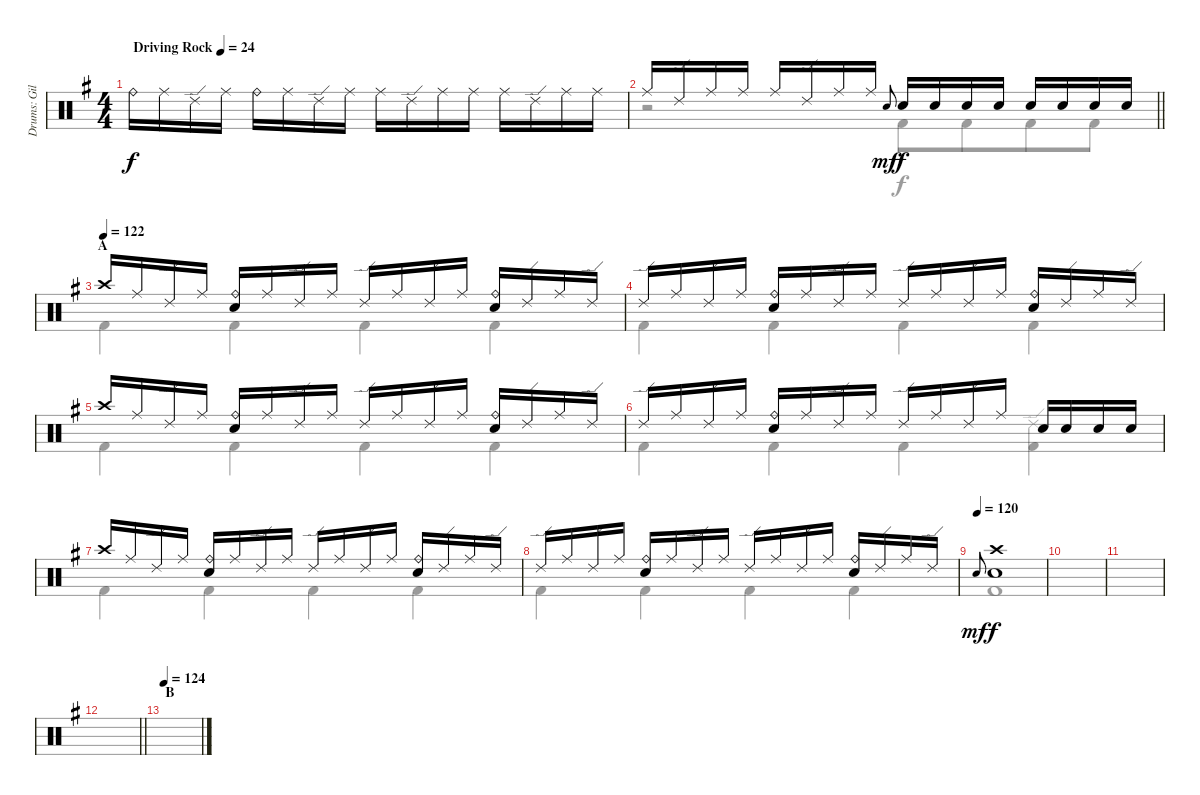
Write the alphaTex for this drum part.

\track ("Drums: Gil" "Drums: Gil") {instrument percussion}
\staff {score}
\articulation defaults
\voice
\ts (4 4)
\tempo (24 "Driving Rock")
\tempo 124
\tempo (24 "Driving Rock")
\clef neutral
\ks g "Ride (bell)".16{dy f volume 0} "Ride (middle)".16 "Ride (edge) 2".16 "Ride (middle)".16 "Ride (bell)".16{volume 16} "Ride (middle)".16 "Ride (edge) 2".16 "Ride (middle)".16 "Ride (middle)".16 "Ride (edge) 2".16 "Ride (middle)".16 "Ride (middle)".16 "Ride (middle)".16 "Ride (edge) 2".16 "Ride (middle)".16 "Ride (middle)".16
|
\barLineRight lightlight "Ride (middle)".16 "Ride (edge) 2".16 "Ride (middle)".16 "Ride (middle)".16 "Ride (middle)".16 "Ride (edge) 2".16 "Ride (middle)".16 "Ride (middle)".16 "Electric Snare (hit)".8{gr onbeat dy mf} "Snare (hit) 2".16{dy f} "Snare (hit) 2".16 "Snare (hit) 2".16 "Snare (hit) 2".16 "Snare (hit) 2".16 "Snare (hit) 2".16 "Snare (hit) 2".16 "Snare (hit) 2".16
|
\section ("" "A")
\tempo (122)
"Crash high (hit)".16 "Ride (middle)".16 "Ride (edge) 2".16 "Ride (middle)".16 ("Ride (bell)" "Snare (hit) 2").16 "Ride (middle)".16 "Ride (edge) 2".16 "Ride (middle)".16 "Ride (edge) 2".16 "Ride (middle)".16 "Ride (edge) 2".16 "Ride (middle)".16 ("Ride (bell)" "Snare (hit) 2").16 "Ride (edge) 2".16 "Ride (middle)".16 "Ride (edge) 2".16 |
"Ride (edge) 2".16 "Ride (middle)".16 "Ride (edge) 2".16 "Ride (middle)".16 ("Ride (bell)" "Snare (hit) 2").16 "Ride (middle)".16 "Ride (edge) 2".16 "Ride (middle)".16 "Ride (edge) 2".16 "Ride (middle)".16 "Ride (edge) 2".16 "Ride (middle)".16 ("Ride (bell)" "Snare (hit) 2").16 "Ride (edge) 2".16 "Ride (middle)".16 "Ride (edge) 2".16 |
"Crash high (hit)".16 "Ride (middle)".16 "Ride (edge) 2".16 "Ride (middle)".16 ("Ride (bell)" "Snare (hit) 2").16 "Ride (middle)".16 "Ride (edge) 2".16 "Ride (middle)".16 "Ride (edge) 2".16 "Ride (middle)".16 "Ride (edge) 2".16 "Ride (middle)".16 ("Ride (bell)" "Snare (hit) 2").16 "Ride (edge) 2".16 "Ride (middle)".16 "Ride (edge) 2".16 |
"Ride (edge) 2".16 "Ride (middle)".16 "Ride (edge) 2".16 "Ride (middle)".16 ("Ride (bell)" "Snare (hit) 2").16 "Ride (middle)".16 "Ride (edge) 2".16 "Ride (middle)".16 "Ride (edge) 2".16 "Ride (middle)".16 "Ride (edge) 2".16 "Ride (middle)".16 "Snare (hit) 2".16 "Snare (hit) 2".16 "Snare (hit) 2".16 "Snare (hit) 2".16 |
"Crash high (hit)".16 "Ride (middle)".16 "Ride (edge) 2".16 "Ride (middle)".16 ("Ride (bell)" "Snare (hit) 2").16 "Ride (middle)".16 "Ride (edge) 2".16 "Ride (middle)".16 "Ride (edge) 2".16 "Ride (middle)".16 "Ride (edge) 2".16 "Ride (middle)".16 ("Ride (bell)" "Snare (hit) 2").16 "Ride (edge) 2".16 "Ride (middle)".16 "Ride (edge) 2".16 |
"Ride (edge) 2".16 "Ride (middle)".16 "Ride (edge) 2".16 "Ride (middle)".16 ("Ride (bell)" "Snare (hit) 2").16 "Ride (middle)".16 "Ride (edge) 2".16 "Ride (middle)".16 "Ride (edge) 2".16 "Ride (middle)".16 "Ride (edge) 2".16 "Ride (middle)".16 ("Ride (bell)" "Snare (hit) 2").16 "Ride (edge) 2".16 "Ride (middle)".16 "Ride (edge) 2".16 |
\tempo (120 0.03125)
"Electric Snare (hit)".8{gr onbeat dy mf} ("Crash high (hit)" "Snare (hit) 2").1{dy f} |
|
|
\barLineRight lightlight
|
\section ("" "B")
\tempo 124
|
|
|
\voice
\clef neutral
\ottava regular
\simile none
\ks g
|
\barLineRight lightlight
r.2 "Kick (hit) 2".8 "Kick (hit) 2".8{beam merge} "Kick (hit) 2".8 "Kick (hit) 2".8 |
"Kick (hit) 2".4 "Kick (hit) 2".4 "Kick (hit) 2".4 "Kick (hit) 2".4 |
"Kick (hit) 2".4 "Kick (hit) 2".4 "Kick (hit) 2".4 "Kick (hit) 2".4 |
"Kick (hit) 2".4 "Kick (hit) 2".4 "Kick (hit) 2".4 "Kick (hit) 2".4 |
"Kick (hit) 2".4 "Kick (hit) 2".4 "Kick (hit) 2".4 ("Ride (edge) 2" "Kick (hit) 2").4 |
"Kick (hit) 2".4 "Kick (hit) 2".4 "Kick (hit) 2".4 "Kick (hit) 2".4 |
"Kick (hit) 2".4 "Kick (hit) 2".4 "Kick (hit) 2".4 "Kick (hit) 2".4 |
"Kick (hit) 2".1 |
|
|
\barLineRight lightlight
|
|
|
|
